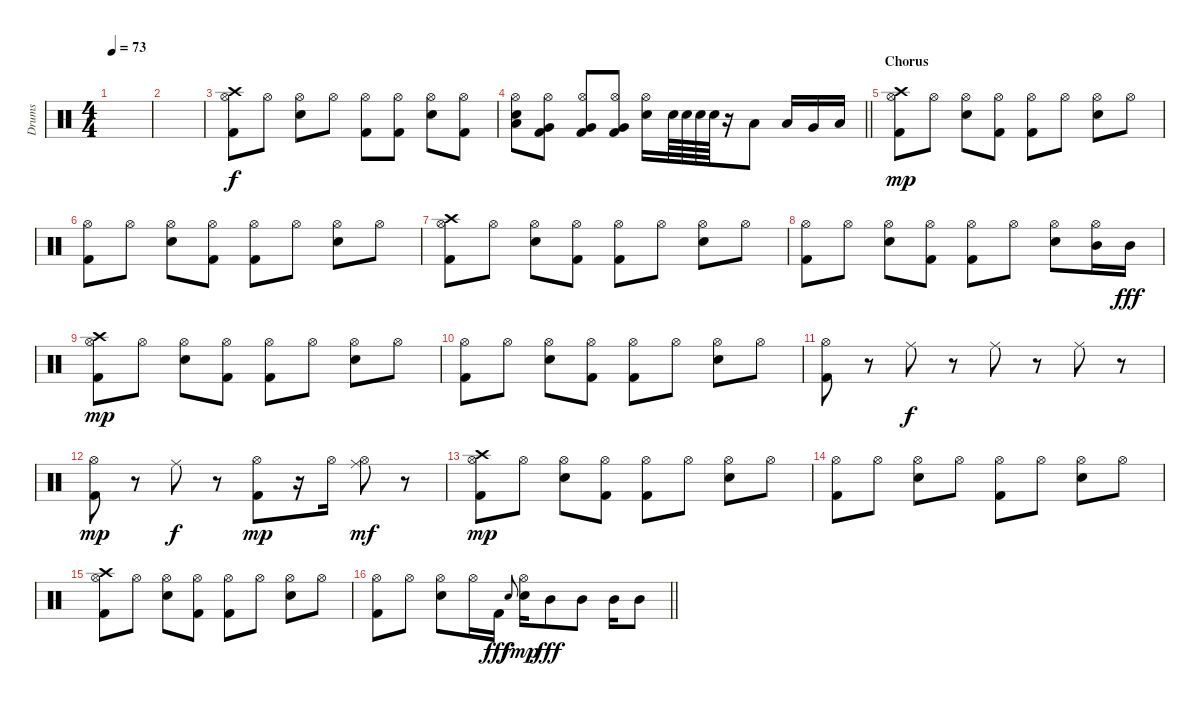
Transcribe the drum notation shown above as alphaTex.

\track ("Drums" "Drums") {instrument percussion}
\staff {score}
\articulation defaults
\ts (4 4)
\tempo 73
\clef neutral
\ks c
|
|
("Kick (hit) 2" "Hi-Hat (open)" "Crash high (hit)").8 "Hi-Hat (open)".8 ("Electric Snare (hit)" "Hi-Hat (open)").8 "Hi-Hat (open)".8 ("Kick (hit) 2" "Hi-Hat (open)").8 ("Kick (hit) 2" "Hi-Hat (open)").8 ("Electric Snare (hit)" "Hi-Hat (open)").8 ("Kick (hit) 2" "Hi-Hat (open)").8 |
\barLineRight lightlight
("Electric Snare (hit)" "Low Tom (hit)" "Hi-Hat (open)").8 ("Kick (hit) 2" "Very Low Tom (hit)" "Hi-Hat (open)").8 ("Kick (hit) 2" "Very Low Tom (hit)" "Hi-Hat (open)").8 ("Kick (hit) 2" "Very Low Tom (hit)" "Hi-Hat (open)").8 ("Electric Snare (hit)" "Hi-Hat (open)").16 "Electric Snare (hit)".64{dy f} "Electric Snare (hit)".64 "Electric Snare (hit)".64 "Electric Snare (hit)".64 r.16 "Low Tom (hit)".8 "Low Tom (hit)".16 "Very Low Tom (hit)".16 "Low Floor Tom (hit)".16 |
\section ("" "Chorus")
("Kick (hit) 2" "Hi-Hat (open)" "Crash high (hit)").8{dy mp} "Hi-Hat (open)".8 ("Electric Snare (hit)" "Hi-Hat (open)").8 ("Kick (hit) 2" "Hi-Hat (open)").8 ("Kick (hit) 2" "Hi-Hat (open)").8 "Hi-Hat (open)".8 ("Electric Snare (hit)" "Hi-Hat (open)").8 "Hi-Hat (open)".8 |
("Kick (hit) 2" "Hi-Hat (open)").8 "Hi-Hat (open)".8 ("Electric Snare (hit)" "Hi-Hat (open)").8 ("Kick (hit) 2" "Hi-Hat (open)").8 ("Kick (hit) 2" "Hi-Hat (open)").8 "Hi-Hat (open)".8 ("Electric Snare (hit)" "Hi-Hat (open)").8 "Hi-Hat (open)".8 |
("Kick (hit) 2" "Hi-Hat (open)" "Crash high (hit)").8 "Hi-Hat (open)".8 ("Electric Snare (hit)" "Hi-Hat (open)").8 ("Kick (hit) 2" "Hi-Hat (open)").8 ("Kick (hit) 2" "Hi-Hat (open)").8 "Hi-Hat (open)".8 ("Electric Snare (hit)" "Hi-Hat (open)").8 "Hi-Hat (open)".8 |
("Kick (hit) 2" "Hi-Hat (open)").8 "Hi-Hat (open)".8 ("Electric Snare (hit)" "Hi-Hat (open)").8 ("Kick (hit) 2" "Hi-Hat (open)").8 ("Kick (hit) 2" "Hi-Hat (open)").8 "Hi-Hat (open)".8 ("Electric Snare (hit)" "Hi-Hat (open)").8 ("Mid Tom (hit)" "Hi-Hat (open)").16 "Mid Tom (hit)".16{dy fff} |
("Kick (hit) 2" "Hi-Hat (open)" "Crash high (hit)").8{dy mp} "Hi-Hat (open)".8 ("Electric Snare (hit)" "Hi-Hat (open)").8 ("Kick (hit) 2" "Hi-Hat (open)").8 ("Kick (hit) 2" "Hi-Hat (open)").8 "Hi-Hat (open)".8 ("Electric Snare (hit)" "Hi-Hat (open)").8 "Hi-Hat (open)".8 |
("Kick (hit) 2" "Hi-Hat (open)").8 "Hi-Hat (open)".8 ("Electric Snare (hit)" "Hi-Hat (open)").8 ("Kick (hit) 2" "Hi-Hat (open)").8 ("Kick (hit) 2" "Hi-Hat (open)").8 "Hi-Hat (open)".8 ("Electric Snare (hit)" "Hi-Hat (open)").8 "Hi-Hat (open)".8 |
("Kick (hit) 2" "Hi-Hat (open)").8 r.8 "Ride (middle)".8{dy f} r.8 "Ride (middle)".8 r.8 "Ride (middle)".8 r.8 |
("Kick (hit) 2" "Hi-Hat (open)").8{dy mp} r.8 "Ride (middle)".8{dy f} r.8 ("Kick (hit) 2" "Hi-Hat (open)").8{dy mp} r.16 "Hi-Hat (open)".16 ("Ride (middle)" "Hi-Hat (open)").8{dy mf} r.8 |
("Kick (hit) 2" "Hi-Hat (open)" "Crash high (hit)").8{dy mp} "Hi-Hat (open)".8 ("Electric Snare (hit)" "Hi-Hat (open)").8 ("Kick (hit) 2" "Hi-Hat (open)").8 ("Kick (hit) 2" "Hi-Hat (open)").8 "Hi-Hat (open)".8 ("Electric Snare (hit)" "Hi-Hat (open)").8 "Hi-Hat (open)".8 |
("Kick (hit) 2" "Hi-Hat (open)").8 "Hi-Hat (open)".8 ("Electric Snare (hit)" "Hi-Hat (open)").8 "Hi-Hat (open)".8 ("Kick (hit) 2" "Hi-Hat (open)").8 "Hi-Hat (open)".8 ("Electric Snare (hit)" "Hi-Hat (open)").8 "Hi-Hat (open)".8 |
("Kick (hit) 2" "Hi-Hat (open)" "Crash high (hit)").8 "Hi-Hat (open)".8 ("Electric Snare (hit)" "Hi-Hat (open)").8 ("Kick (hit) 2" "Hi-Hat (open)").8 ("Kick (hit) 2" "Hi-Hat (open)").8 "Hi-Hat (open)".8 ("Electric Snare (hit)" "Hi-Hat (open)").8 "Hi-Hat (open)".8 |
\barLineRight lightlight
("Kick (hit) 2" "Hi-Hat (open)").8 "Hi-Hat (open)".8 ("Electric Snare (hit)" "Hi-Hat (open)").8 "Hi-Hat (open)".16 "Kick (hit) 2".16{dy fff} "Electric Snare (hit)".8{gr onbeat dy f} ("Electric Snare (hit)" "Hi-Hat (open)").16{dy mp} "Mid Tom (hit)".8{dy fff} "Mid Tom (hit)".8 "Mid Tom (hit)".16 "Mid Tom (hit)".8
